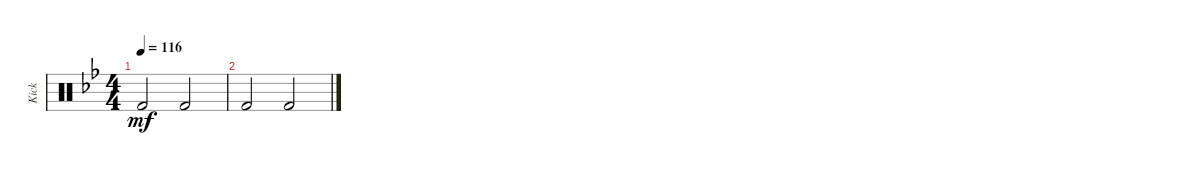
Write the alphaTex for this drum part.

\track ("Kick" "Kick") {instrument percussion}
\staff {score}
\articulation defaults
\ts (4 4)
\tempo 116
\clef neutral
\ks bb "Kick (hit) 2".2{dy mf} "Kick (hit) 2".2
|
"Kick (hit) 2".2 "Kick (hit) 2".2
